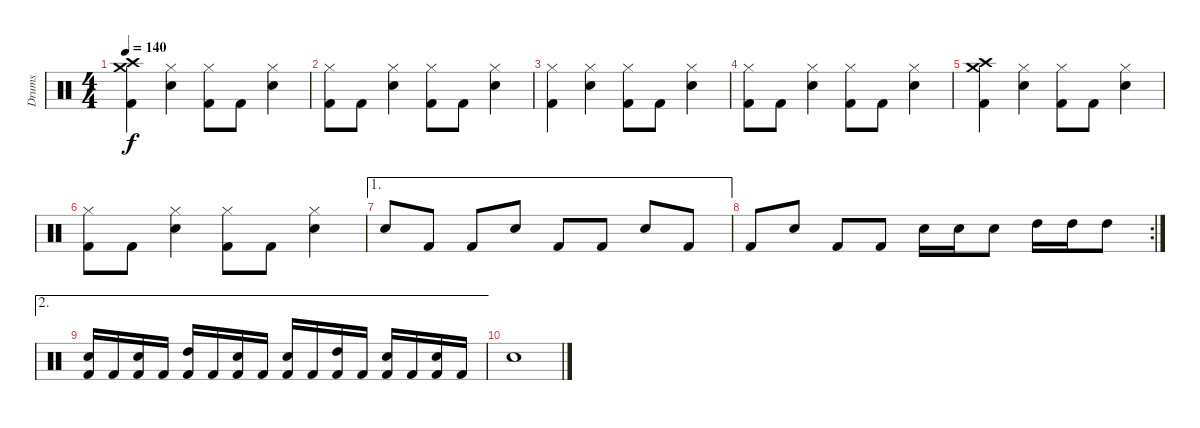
\track ("Drums" "Drums") {instrument percussion}
\staff {score}
\articulation defaults
\ts (4 4)
\tempo 140
\clef neutral
\ks c
("Crash medium (hit)" "Crash high (hit)" "Kick (hit) 2").4{dy f} ("Hi-Hat (closed)" "Snare (hit) 2").4 ("Hi-Hat (closed)" "Kick (hit) 2").8 "Kick (hit) 2".8 ("Hi-Hat (closed)" "Snare (hit) 2").4 |
("Hi-Hat (closed)" "Kick (hit) 2").8 "Kick (hit) 2".8 ("Hi-Hat (closed)" "Snare (hit) 2").4 ("Hi-Hat (closed)" "Kick (hit) 2").8 "Kick (hit) 2".8 ("Hi-Hat (closed)" "Snare (hit) 2").4 |
("Hi-Hat (closed)" "Kick (hit) 2").4 ("Hi-Hat (closed)" "Snare (hit) 2").4 ("Hi-Hat (closed)" "Kick (hit) 2").8 "Kick (hit) 2".8 ("Hi-Hat (closed)" "Snare (hit) 2").4 |
("Hi-Hat (closed)" "Kick (hit) 2").8 "Kick (hit) 2".8 ("Hi-Hat (closed)" "Snare (hit) 2").4 ("Hi-Hat (closed)" "Kick (hit) 2").8 "Kick (hit) 2".8 ("Hi-Hat (closed)" "Snare (hit) 2").4 |
("Crash medium (hit)" "Crash high (hit)" "Kick (hit) 2").4 ("Hi-Hat (closed)" "Snare (hit) 2").4 ("Hi-Hat (closed)" "Kick (hit) 2").8 "Kick (hit) 2".8 ("Hi-Hat (closed)" "Snare (hit) 2").4 |
("Hi-Hat (closed)" "Kick (hit) 2").8 "Kick (hit) 2".8 ("Hi-Hat (closed)" "Snare (hit) 2").4 ("Hi-Hat (closed)" "Kick (hit) 2").8 "Kick (hit) 2".8 ("Hi-Hat (closed)" "Snare (hit) 2").4 |
\ae 1 "Snare (hit) 2".8 "Kick (hit) 2".8 "Kick (hit) 2".8 "Snare (hit) 2".8 "Kick (hit) 2".8 "Kick (hit) 2".8 "Snare (hit) 2".8 "Kick (hit) 2".8
|
\rc 2 "Kick (hit) 2".8 "Snare (hit) 2".8 "Kick (hit) 2".8 "Kick (hit) 2".8 "Snare (hit) 2".16 "Snare (hit) 2".16 "Snare (hit) 2".8 "High Tom (hit)".16 "High Tom (hit)".16 "High Tom (hit)".8
|
\ae 2
("Snare (hit) 2" "Kick (hit) 2").16 "Kick (hit) 2".16 ("Snare (hit) 2" "Kick (hit) 2").16 "Kick (hit) 2".16 ("High Tom (hit)" "Kick (hit) 2").16 "Kick (hit) 2".16 ("Snare (hit) 2" "Kick (hit) 2").16 "Kick (hit) 2".16 ("Snare (hit) 2" "Kick (hit) 2").16 "Kick (hit) 2".16 ("High Tom (hit)" "Kick (hit) 2").16 "Kick (hit) 2".16 ("Snare (hit) 2" "Kick (hit) 2").16 "Kick (hit) 2".16 ("Snare (hit) 2" "Kick (hit) 2").16 "Kick (hit) 2".16 |
"Snare (hit) 2".1
